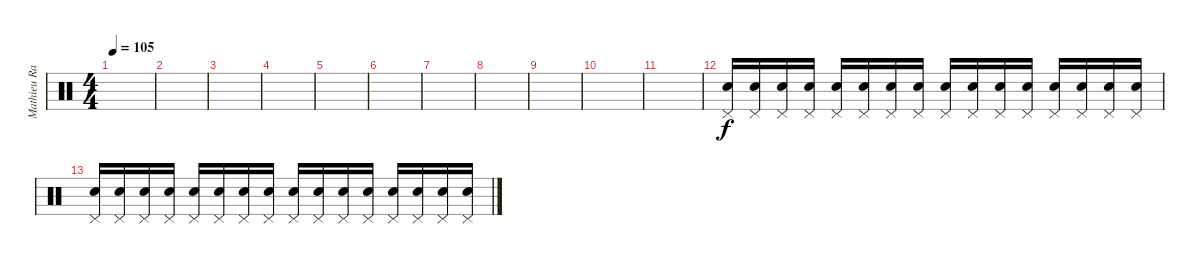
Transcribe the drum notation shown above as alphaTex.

\track ("Mathieu Rabaté (batterie)" "Mathieu Ra") {instrument percussion}
\staff {score}
\articulation defaults
\ts (4 4)
\tempo 105
\clef neutral
\ks c
|
|
|
|
|
|
|
|
|
|
|
("Snare (hit) 2" "Pedal Hi-Hat (hit)").16 ("Snare (hit) 2" "Pedal Hi-Hat (hit)").16 ("Snare (hit) 2" "Pedal Hi-Hat (hit)").16 ("Snare (hit) 2" "Pedal Hi-Hat (hit)").16 ("Snare (hit) 2" "Pedal Hi-Hat (hit)").16 ("Snare (hit) 2" "Pedal Hi-Hat (hit)").16 ("Snare (hit) 2" "Pedal Hi-Hat (hit)").16 ("Snare (hit) 2" "Pedal Hi-Hat (hit)").16 ("Snare (hit) 2" "Pedal Hi-Hat (hit)").16 ("Snare (hit) 2" "Pedal Hi-Hat (hit)").16 ("Snare (hit) 2" "Pedal Hi-Hat (hit)").16 ("Snare (hit) 2" "Pedal Hi-Hat (hit)").16 ("Snare (hit) 2" "Pedal Hi-Hat (hit)").16 ("Snare (hit) 2" "Pedal Hi-Hat (hit)").16 ("Snare (hit) 2" "Pedal Hi-Hat (hit)").16 ("Snare (hit) 2" "Pedal Hi-Hat (hit)").16 |
("Snare (hit) 2" "Pedal Hi-Hat (hit)").16 ("Snare (hit) 2" "Pedal Hi-Hat (hit)").16 ("Snare (hit) 2" "Pedal Hi-Hat (hit)").16 ("Snare (hit) 2" "Pedal Hi-Hat (hit)").16 ("Snare (hit) 2" "Pedal Hi-Hat (hit)").16 ("Snare (hit) 2" "Pedal Hi-Hat (hit)").16 ("Snare (hit) 2" "Pedal Hi-Hat (hit)").16 ("Snare (hit) 2" "Pedal Hi-Hat (hit)").16 ("Snare (hit) 2" "Pedal Hi-Hat (hit)").16 ("Snare (hit) 2" "Pedal Hi-Hat (hit)").16 ("Snare (hit) 2" "Pedal Hi-Hat (hit)").16 ("Snare (hit) 2" "Pedal Hi-Hat (hit)").16 ("Snare (hit) 2" "Pedal Hi-Hat (hit)").16 ("Snare (hit) 2" "Pedal Hi-Hat (hit)").16 ("Snare (hit) 2" "Pedal Hi-Hat (hit)").16 ("Snare (hit) 2" "Pedal Hi-Hat (hit)").16
